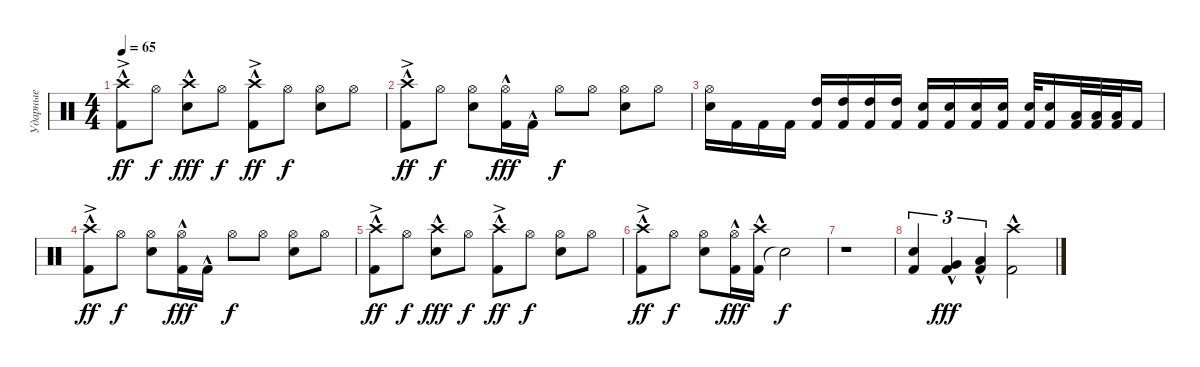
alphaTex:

\track ("Ударные" "Ударные") {instrument percussion}
\staff {score}
\articulation defaults
\ts (4 4)
\tempo 65
\clef neutral
\ks c
("Kick (hit) 2"{hac} "Crash high (hit)"{ac}).8{dy ff} "Hi-Hat (open)".8{dy f} ("Snare (hit) 2" "Crash high (hit)"{hac}).8{dy fff} "Hi-Hat (open)".8{dy f} ("Kick (hit) 2"{hac} "Crash high (hit)"{ac}).8{dy ff} "Hi-Hat (open)".8{dy f} ("Snare (hit) 2" "Hi-Hat (open)").8 "Hi-Hat (open)".8 |
("Kick (hit) 2"{hac} "Crash high (hit)"{ac}).8{dy ff} "Hi-Hat (open)".8{dy f} ("Snare (hit) 2" "Hi-Hat (open)").8 ("Kick (hit) 2"{hac} "Hi-Hat (open)").16{dy fff} "Kick (hit) 2"{hac}.16 "Hi-Hat (open)".8{dy f} "Hi-Hat (open)".8 ("Snare (hit) 2" "Hi-Hat (open)").8 "Hi-Hat (open)".8 |
("Snare (hit) 2" "Hi-Hat (open)").16 "Kick (hit) 2".16 "Kick (hit) 2".16 "Kick (hit) 2".16 ("Kick (hit) 2" "High Tom (hit)").16 ("Kick (hit) 2" "High Tom (hit)").16 ("Kick (hit) 2" "High Tom (hit)").16 ("Kick (hit) 2" "High Tom (hit)").16 ("Kick (hit) 2" "Snare (hit) 2").16 ("Kick (hit) 2" "Snare (hit) 2").16 ("Kick (hit) 2" "Snare (hit) 2").16 ("Kick (hit) 2" "Snare (hit) 2").16 ("Kick (hit) 2" "Snare (hit) 2").32 ("Kick (hit) 2" "Snare (hit) 2").16 ("Kick (hit) 2" "Low Tom (hit)").32 ("Kick (hit) 2" "Low Tom (hit)").32 ("Kick (hit) 2" "Low Floor Tom (hit)").32 "Kick (hit) 2".16 |
("Kick (hit) 2"{hac} "Crash high (hit)"{ac}).8{dy ff} "Hi-Hat (open)".8{dy f} ("Snare (hit) 2" "Hi-Hat (open)").8 ("Kick (hit) 2"{hac} "Hi-Hat (open)").16{dy fff} "Kick (hit) 2"{hac}.16 "Hi-Hat (open)".8{dy f} "Hi-Hat (open)".8 ("Snare (hit) 2" "Hi-Hat (open)").8 "Hi-Hat (open)".8 |
("Kick (hit) 2"{hac} "Crash high (hit)"{ac}).8{dy ff} "Hi-Hat (open)".8{dy f} ("Snare (hit) 2" "Crash high (hit)"{hac}).8{dy fff} "Hi-Hat (open)".8{dy f} ("Kick (hit) 2"{hac} "Crash high (hit)"{ac}).8{dy ff} "Hi-Hat (open)".8{dy f} ("Snare (hit) 2" "Hi-Hat (open)").8 "Hi-Hat (open)".8 |
("Kick (hit) 2"{hac} "Crash high (hit)"{ac}).8{dy ff} "Hi-Hat (open)".8{dy f} ("Snare (hit) 2" "Hi-Hat (open)").8 ("Kick (hit) 2"{hac} "Hi-Hat (open)").16{dy fff} ("Kick (hit) 2"{hac} "Crash high (hit)"{hac}).16 "Snare (hit)"{t}.2{dy f} |
r.1 |
("Kick (hit) 2" "Snare (hit) 2").4{tu (3 2)} ("Kick (hit) 2"{hac} "Very Low Tom (hit)").4{tu (3 2) dy fff} ("Kick (hit) 2"{hac} "Low Floor Tom (hit)").4{tu (3 2)} ("Kick (hit) 2"{hac} "Crash high (hit)").2
